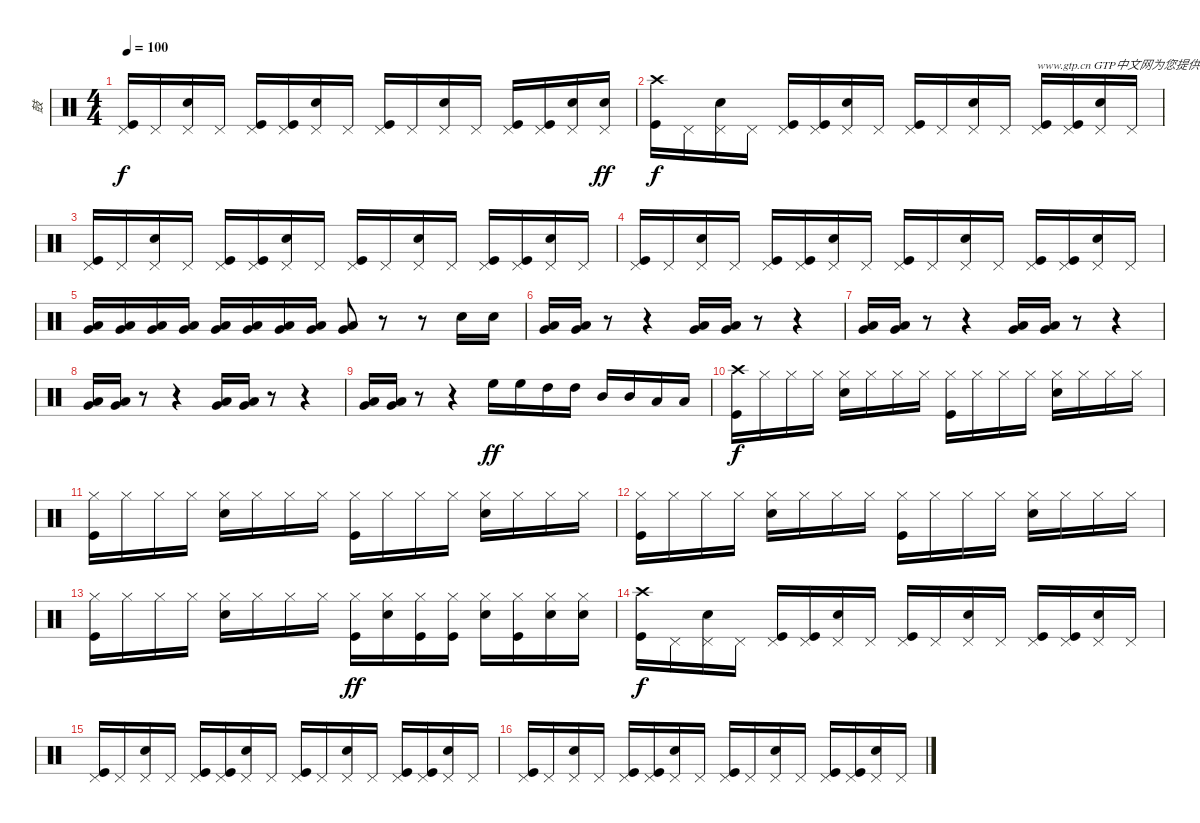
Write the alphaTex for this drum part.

\track ("鼓" "鼓") {instrument percussion}
\staff {score}
\articulation defaults
\ts (4 4)
\tempo 100
\clef neutral
\ks c
("Kick (hit)" "Pedal Hi-Hat (hit)").16{dy f} "Pedal Hi-Hat (hit)".16 ("Snare (hit) 2" "Pedal Hi-Hat (hit)").16 "Pedal Hi-Hat (hit)".16 ("Kick (hit)" "Pedal Hi-Hat (hit)").16 ("Kick (hit)" "Pedal Hi-Hat (hit)").16 ("Snare (hit) 2" "Pedal Hi-Hat (hit)").16 "Pedal Hi-Hat (hit)".16 ("Kick (hit)" "Pedal Hi-Hat (hit)").16 "Pedal Hi-Hat (hit)".16 ("Snare (hit) 2" "Pedal Hi-Hat (hit)").16 "Pedal Hi-Hat (hit)".16 ("Kick (hit)" "Pedal Hi-Hat (hit)").16 ("Kick (hit)" "Pedal Hi-Hat (hit)").16 ("Snare (hit) 2" "Pedal Hi-Hat (hit)").16 ("Pedal Hi-Hat (hit)" "Snare (hit) 2").16{dy ff} |
("Kick (hit)" "Crash high (hit)").16{dy f} "Pedal Hi-Hat (hit)".16 ("Snare (hit) 2" "Pedal Hi-Hat (hit)").16 "Pedal Hi-Hat (hit)".16 ("Kick (hit)" "Pedal Hi-Hat (hit)").16 ("Kick (hit)" "Pedal Hi-Hat (hit)").16 ("Snare (hit) 2" "Pedal Hi-Hat (hit)").16 "Pedal Hi-Hat (hit)".16 ("Kick (hit)" "Pedal Hi-Hat (hit)").16 "Pedal Hi-Hat (hit)".16 ("Snare (hit) 2" "Pedal Hi-Hat (hit)").16 "Pedal Hi-Hat (hit)".16 ("Kick (hit)" "Pedal Hi-Hat (hit)").16{txt "www.gtp.cn GTP中文网为您提供优秀的谱子"} ("Kick (hit)" "Pedal Hi-Hat (hit)").16 ("Snare (hit) 2" "Pedal Hi-Hat (hit)").16 "Pedal Hi-Hat (hit)".16 |
("Kick (hit)" "Pedal Hi-Hat (hit)").16 "Pedal Hi-Hat (hit)".16 ("Snare (hit) 2" "Pedal Hi-Hat (hit)").16 "Pedal Hi-Hat (hit)".16 ("Kick (hit)" "Pedal Hi-Hat (hit)").16 ("Kick (hit)" "Pedal Hi-Hat (hit)").16 ("Snare (hit) 2" "Pedal Hi-Hat (hit)").16 "Pedal Hi-Hat (hit)".16 ("Kick (hit)" "Pedal Hi-Hat (hit)").16 "Pedal Hi-Hat (hit)".16 ("Snare (hit) 2" "Pedal Hi-Hat (hit)").16 "Pedal Hi-Hat (hit)".16 ("Kick (hit)" "Pedal Hi-Hat (hit)").16 ("Kick (hit)" "Pedal Hi-Hat (hit)").16 ("Snare (hit) 2" "Pedal Hi-Hat (hit)").16 "Pedal Hi-Hat (hit)".16 |
("Kick (hit)" "Pedal Hi-Hat (hit)").16 "Pedal Hi-Hat (hit)".16 ("Snare (hit) 2" "Pedal Hi-Hat (hit)").16 "Pedal Hi-Hat (hit)".16 ("Kick (hit)" "Pedal Hi-Hat (hit)").16 ("Kick (hit)" "Pedal Hi-Hat (hit)").16 ("Snare (hit) 2" "Pedal Hi-Hat (hit)").16 "Pedal Hi-Hat (hit)".16 ("Kick (hit)" "Pedal Hi-Hat (hit)").16 "Pedal Hi-Hat (hit)".16 ("Snare (hit) 2" "Pedal Hi-Hat (hit)").16 "Pedal Hi-Hat (hit)".16 ("Kick (hit)" "Pedal Hi-Hat (hit)").16 ("Kick (hit)" "Pedal Hi-Hat (hit)").16 ("Snare (hit) 2" "Pedal Hi-Hat (hit)").16 "Pedal Hi-Hat (hit)".16 |
("Very Low Tom (hit)" "Low Tom (hit)").16 ("Very Low Tom (hit)" "Low Tom (hit)").16 ("Very Low Tom (hit)" "Low Tom (hit)").16 ("Very Low Tom (hit)" "Low Tom (hit)").16 ("Very Low Tom (hit)" "Low Tom (hit)").16 ("Very Low Tom (hit)" "Low Tom (hit)").16 ("Very Low Tom (hit)" "Low Tom (hit)").16 ("Very Low Tom (hit)" "Low Tom (hit)").16 ("Very Low Tom (hit)" "Low Tom (hit)").8 r.8 r.8 "Snare (hit) 2".16 "Snare (hit) 2".16 |
("Very Low Tom (hit)" "Low Tom (hit)").16 ("Very Low Tom (hit)" "Low Tom (hit)").16 r.8 r.4 ("Very Low Tom (hit)" "Low Tom (hit)").16 ("Very Low Tom (hit)" "Low Tom (hit)").16 r.8 r.4 |
("Very Low Tom (hit)" "Low Tom (hit)").16 ("Very Low Tom (hit)" "Low Tom (hit)").16 r.8 r.4 ("Very Low Tom (hit)" "Low Tom (hit)").16 ("Very Low Tom (hit)" "Low Tom (hit)").16 r.8 r.4 |
("Very Low Tom (hit)" "Low Tom (hit)").16 ("Very Low Tom (hit)" "Low Tom (hit)").16 r.8 r.4 ("Very Low Tom (hit)" "Low Tom (hit)").16 ("Very Low Tom (hit)" "Low Tom (hit)").16 r.8 r.4 |
("Very Low Tom (hit)" "Low Tom (hit)").16 ("Very Low Tom (hit)" "Low Tom (hit)").16 r.8 r.4 "High Floor Tom (hit)".16{dy ff} "High Floor Tom (hit)".16 "High Tom (hit)".16 "High Tom (hit)".16 "Mid Tom (hit)".16 "Mid Tom (hit)".16 "Low Tom (hit)".16 "Low Tom (hit)".16 |
("Kick (hit)" "Crash high (hit)").16{dy f} "Hi-Hat (closed)".16 "Hi-Hat (closed)".16 "Hi-Hat (closed)".16 ("Snare (hit) 2" "Hi-Hat (closed)").16 "Hi-Hat (closed)".16 "Hi-Hat (closed)".16 "Hi-Hat (closed)".16 ("Kick (hit)" "Hi-Hat (closed)").16 "Hi-Hat (closed)".16 "Hi-Hat (closed)".16 "Hi-Hat (closed)".16 ("Snare (hit) 2" "Hi-Hat (closed)").16 "Hi-Hat (closed)".16 "Hi-Hat (closed)".16 "Hi-Hat (closed)".16 |
("Kick (hit)" "Hi-Hat (closed)").16 "Hi-Hat (closed)".16 "Hi-Hat (closed)".16 "Hi-Hat (closed)".16 ("Snare (hit) 2" "Hi-Hat (closed)").16 "Hi-Hat (closed)".16 "Hi-Hat (closed)".16 "Hi-Hat (closed)".16 ("Kick (hit)" "Hi-Hat (closed)").16 "Hi-Hat (closed)".16 "Hi-Hat (closed)".16 "Hi-Hat (closed)".16 ("Snare (hit) 2" "Hi-Hat (closed)").16 "Hi-Hat (closed)".16 "Hi-Hat (closed)".16 "Hi-Hat (closed)".16 |
("Kick (hit)" "Hi-Hat (closed)").16 "Hi-Hat (closed)".16 "Hi-Hat (closed)".16 "Hi-Hat (closed)".16 ("Snare (hit) 2" "Hi-Hat (closed)").16 "Hi-Hat (closed)".16 "Hi-Hat (closed)".16 "Hi-Hat (closed)".16 ("Kick (hit)" "Hi-Hat (closed)").16 "Hi-Hat (closed)".16 "Hi-Hat (closed)".16 "Hi-Hat (closed)".16 ("Snare (hit) 2" "Hi-Hat (closed)").16 "Hi-Hat (closed)".16 "Hi-Hat (closed)".16 "Hi-Hat (closed)".16 |
("Kick (hit)" "Hi-Hat (closed)").16 "Hi-Hat (closed)".16 "Hi-Hat (closed)".16 "Hi-Hat (closed)".16 ("Snare (hit) 2" "Hi-Hat (closed)").16 "Hi-Hat (closed)".16 "Hi-Hat (closed)".16 "Hi-Hat (closed)".16 ("Hi-Hat (closed)" "Kick (hit)").16{dy ff} ("Hi-Hat (closed)" "Snare (hit) 2").16 ("Hi-Hat (closed)" "Kick (hit)").16 ("Hi-Hat (closed)" "Kick (hit)").16 ("Hi-Hat (closed)" "Snare (hit) 2").16 ("Hi-Hat (closed)" "Kick (hit)").16 ("Hi-Hat (closed)" "Snare (hit) 2").16 ("Hi-Hat (closed)" "Snare (hit) 2").16 |
("Kick (hit)" "Crash high (hit)").16{dy f} "Pedal Hi-Hat (hit)".16 ("Snare (hit) 2" "Pedal Hi-Hat (hit)").16 "Pedal Hi-Hat (hit)".16 ("Kick (hit)" "Pedal Hi-Hat (hit)").16 ("Kick (hit)" "Pedal Hi-Hat (hit)").16 ("Snare (hit) 2" "Pedal Hi-Hat (hit)").16 "Pedal Hi-Hat (hit)".16 ("Kick (hit)" "Pedal Hi-Hat (hit)").16 "Pedal Hi-Hat (hit)".16 ("Snare (hit) 2" "Pedal Hi-Hat (hit)").16 "Pedal Hi-Hat (hit)".16 ("Kick (hit)" "Pedal Hi-Hat (hit)").16 ("Kick (hit)" "Pedal Hi-Hat (hit)").16 ("Snare (hit) 2" "Pedal Hi-Hat (hit)").16 "Pedal Hi-Hat (hit)".16 |
("Kick (hit)" "Pedal Hi-Hat (hit)").16 "Pedal Hi-Hat (hit)".16 ("Snare (hit) 2" "Pedal Hi-Hat (hit)").16 "Pedal Hi-Hat (hit)".16 ("Kick (hit)" "Pedal Hi-Hat (hit)").16 ("Kick (hit)" "Pedal Hi-Hat (hit)").16 ("Snare (hit) 2" "Pedal Hi-Hat (hit)").16 "Pedal Hi-Hat (hit)".16 ("Kick (hit)" "Pedal Hi-Hat (hit)").16 "Pedal Hi-Hat (hit)".16 ("Snare (hit) 2" "Pedal Hi-Hat (hit)").16 "Pedal Hi-Hat (hit)".16 ("Kick (hit)" "Pedal Hi-Hat (hit)").16 ("Kick (hit)" "Pedal Hi-Hat (hit)").16 ("Snare (hit) 2" "Pedal Hi-Hat (hit)").16 "Pedal Hi-Hat (hit)".16 |
("Kick (hit)" "Pedal Hi-Hat (hit)").16 "Pedal Hi-Hat (hit)".16 ("Snare (hit) 2" "Pedal Hi-Hat (hit)").16 "Pedal Hi-Hat (hit)".16 ("Kick (hit)" "Pedal Hi-Hat (hit)").16 ("Kick (hit)" "Pedal Hi-Hat (hit)").16 ("Snare (hit) 2" "Pedal Hi-Hat (hit)").16 "Pedal Hi-Hat (hit)".16 ("Kick (hit)" "Pedal Hi-Hat (hit)").16 "Pedal Hi-Hat (hit)".16 ("Snare (hit) 2" "Pedal Hi-Hat (hit)").16 "Pedal Hi-Hat (hit)".16 ("Kick (hit)" "Pedal Hi-Hat (hit)").16 ("Kick (hit)" "Pedal Hi-Hat (hit)").16 ("Snare (hit) 2" "Pedal Hi-Hat (hit)").16 "Pedal Hi-Hat (hit)".16
